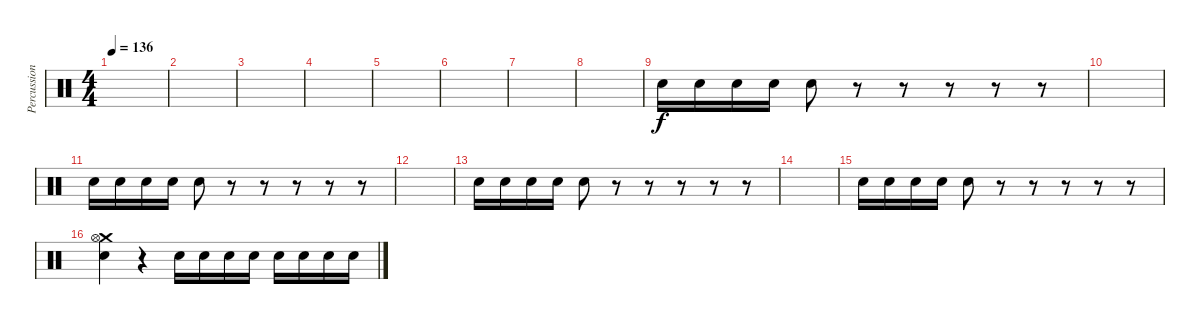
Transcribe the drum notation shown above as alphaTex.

\track ("Percussion IV" "Percussion") {instrument percussion}
\staff {score}
\articulation defaults
\ts (4 4)
\tempo 136
\clef neutral
\ks c
|
|
|
|
|
|
|
|
"Electric Snare (hit)".16 "Electric Snare (hit)".16 "Electric Snare (hit)".16 "Electric Snare (hit)".16 "Electric Snare (hit)".8 r.8 r.8 r.8 r.8 r.8 |
|
"Electric Snare (hit)".16 "Electric Snare (hit)".16 "Electric Snare (hit)".16 "Electric Snare (hit)".16 "Electric Snare (hit)".8 r.8 r.8 r.8 r.8 r.8 |
|
"Electric Snare (hit)".16 "Electric Snare (hit)".16 "Electric Snare (hit)".16 "Electric Snare (hit)".16 "Electric Snare (hit)".8 r.8 r.8 r.8 r.8 r.8 |
|
"Electric Snare (hit)".16 "Electric Snare (hit)".16 "Electric Snare (hit)".16 "Electric Snare (hit)".16 "Electric Snare (hit)".8 r.8 r.8 r.8 r.8 r.8 |
("Crash medium (hit)" "Hi-Hat (open)" "Electric Snare (hit)").4 r.4 "Electric Snare (hit)".16 "Electric Snare (hit)".16 "Electric Snare (hit)".16 "Electric Snare (hit)".16 "Electric Snare (hit)".16 "Electric Snare (hit)".16 "Electric Snare (hit)".16 "Electric Snare (hit)".16
